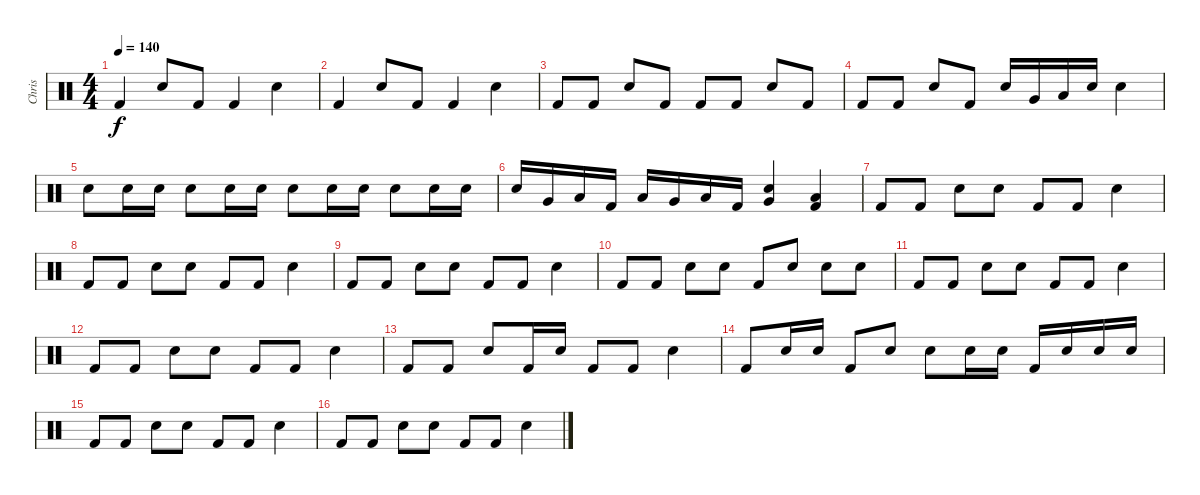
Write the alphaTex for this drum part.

\track ("Chris" "Chris") {instrument percussion}
\staff {score}
\articulation defaults
\ts (4 4)
\tempo 140
\clef neutral
\ks c "Kick (hit) 2".4{dy f} "Snare (hit) 2".8 "Kick (hit) 2".8 "Kick (hit) 2".4 "Snare (hit) 2".4
|
"Kick (hit) 2".4 "Snare (hit) 2".8 "Kick (hit) 2".8 "Kick (hit) 2".4 "Snare (hit) 2".4 |
"Kick (hit) 2".8 "Kick (hit) 2".8 "Snare (hit) 2".8 "Kick (hit) 2".8 "Kick (hit) 2".8 "Kick (hit) 2".8 "Snare (hit) 2".8 "Kick (hit) 2".8 |
"Kick (hit) 2".8 "Kick (hit) 2".8 "Snare (hit) 2".8 "Kick (hit) 2".8 "Snare (hit) 2".16 "Very Low Tom (hit)".16 "Low Floor Tom (hit)".16 "Snare (hit) 2".16 "Snare (hit) 2".4 |
"Snare (hit) 2".8 "Snare (hit) 2".16 "Snare (hit) 2".16 "Snare (hit) 2".8 "Snare (hit) 2".16 "Snare (hit) 2".16 "Snare (hit) 2".8 "Snare (hit) 2".16 "Snare (hit) 2".16 "Snare (hit) 2".8 "Snare (hit) 2".16 "Snare (hit) 2".16 |
"Snare (hit) 2".16 "Very Low Tom (hit)".16 "Low Floor Tom (hit)".16 "Kick (hit) 2".16 "Low Floor Tom (hit)".16 "Very Low Tom (hit)".16 "Low Floor Tom (hit)".16 "Kick (hit) 2".16 ("Snare (hit) 2" "Very Low Tom (hit)").4 ("Kick (hit) 2" "Low Floor Tom (hit)").4 |
"Kick (hit) 2".8 "Kick (hit) 2".8 "Snare (hit) 2".8 "Snare (hit) 2".8 "Kick (hit) 2".8 "Kick (hit) 2".8 "Snare (hit) 2".4 |
"Kick (hit) 2".8 "Kick (hit) 2".8 "Snare (hit) 2".8 "Snare (hit) 2".8 "Kick (hit) 2".8 "Kick (hit) 2".8 "Snare (hit) 2".4 |
"Kick (hit) 2".8 "Kick (hit) 2".8 "Snare (hit) 2".8 "Snare (hit) 2".8 "Kick (hit) 2".8 "Kick (hit) 2".8 "Snare (hit) 2".4 |
"Kick (hit) 2".8 "Kick (hit) 2".8 "Snare (hit) 2".8 "Snare (hit) 2".8 "Kick (hit) 2".8 "Snare (hit) 2".8 "Snare (hit) 2".8 "Snare (hit) 2".8 |
"Kick (hit) 2".8 "Kick (hit) 2".8 "Snare (hit) 2".8 "Snare (hit) 2".8 "Kick (hit) 2".8 "Kick (hit) 2".8 "Snare (hit) 2".4 |
"Kick (hit) 2".8 "Kick (hit) 2".8 "Snare (hit) 2".8 "Snare (hit) 2".8 "Kick (hit) 2".8 "Kick (hit) 2".8 "Snare (hit) 2".4 |
"Kick (hit) 2".8 "Kick (hit) 2".8 "Snare (hit) 2".8 "Kick (hit) 2".16 "Snare (hit) 2".16 "Kick (hit) 2".8 "Kick (hit) 2".8 "Snare (hit) 2".4 |
"Kick (hit) 2".8 "Snare (hit) 2".16 "Snare (hit) 2".16 "Kick (hit) 2".8 "Snare (hit) 2".8 "Snare (hit) 2".8 "Snare (hit) 2".16 "Snare (hit) 2".16 "Kick (hit) 2".16 "Snare (hit) 2".16 "Snare (hit) 2".16 "Snare (hit) 2".16 |
"Kick (hit) 2".8 "Kick (hit) 2".8 "Snare (hit) 2".8 "Snare (hit) 2".8 "Kick (hit) 2".8 "Kick (hit) 2".8 "Snare (hit) 2".4 |
"Kick (hit) 2".8 "Kick (hit) 2".8 "Snare (hit) 2".8 "Snare (hit) 2".8 "Kick (hit) 2".8 "Kick (hit) 2".8 "Snare (hit) 2".4
